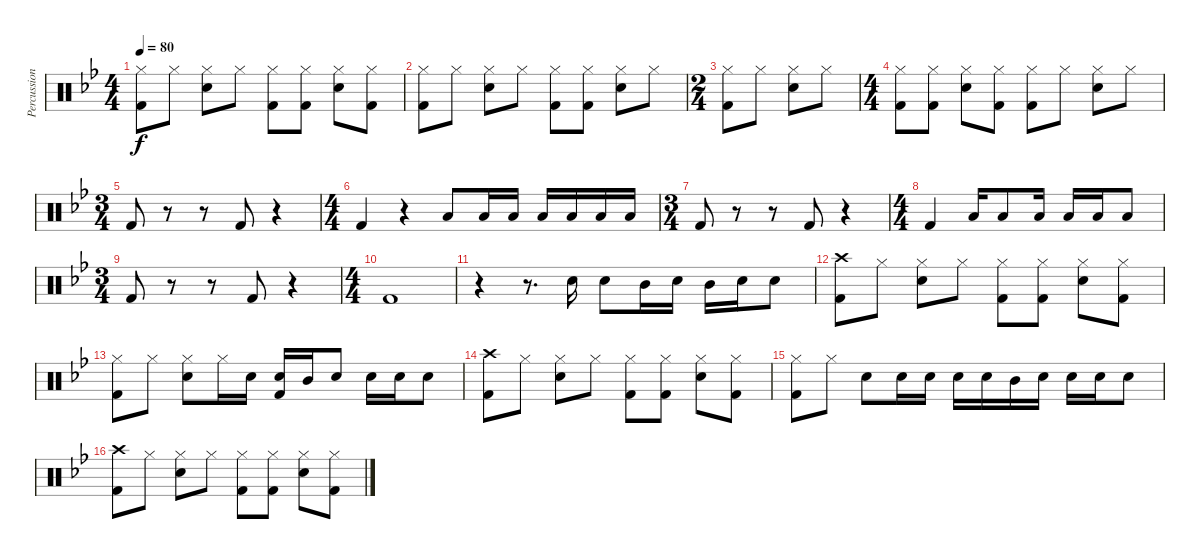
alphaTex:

\track ("Percussion" "Percussion") {instrument percussion}
\staff {score}
\articulation defaults
\ts (4 4)
\tempo 80
\clef neutral
\ks bb
("Hi-Hat (closed)" "Kick (hit) 2").8{dy f} "Hi-Hat (closed)".8 ("Hi-Hat (closed)" "Snare (hit) 2").8 "Hi-Hat (closed)".8 ("Hi-Hat (closed)" "Kick (hit) 2").8 ("Hi-Hat (closed)" "Kick (hit) 2").8 ("Hi-Hat (closed)" "Snare (hit) 2").8 ("Hi-Hat (closed)" "Kick (hit) 2").8 |
("Hi-Hat (closed)" "Kick (hit) 2").8 "Hi-Hat (closed)".8 ("Hi-Hat (closed)" "Snare (hit) 2").8 "Hi-Hat (closed)".8 ("Hi-Hat (closed)" "Kick (hit) 2").8 ("Hi-Hat (closed)" "Kick (hit) 2").8 ("Hi-Hat (closed)" "Snare (hit) 2").8 "Hi-Hat (closed)".8 |
\ts (2 4)
("Hi-Hat (closed)" "Kick (hit) 2").8 "Hi-Hat (closed)".8 ("Hi-Hat (closed)" "Snare (hit) 2").8 "Hi-Hat (closed)".8 |
\ts (4 4)
("Hi-Hat (closed)" "Kick (hit) 2").8 ("Hi-Hat (closed)" "Kick (hit) 2").8 ("Hi-Hat (closed)" "Snare (hit) 2").8 ("Hi-Hat (closed)" "Kick (hit) 2").8 ("Hi-Hat (closed)" "Kick (hit) 2").8 "Hi-Hat (closed)".8 ("Hi-Hat (closed)" "Snare (hit) 2").8 "Hi-Hat (closed)".8 |
\ts (3 4)
"Kick (hit) 2".8 r.8 r.8 "Kick (hit) 2".8 r.4 |
\ts (4 4)
"Kick (hit) 2".4 r.4 "Low Floor Tom (hit)".8 "Low Floor Tom (hit)".16 "Low Floor Tom (hit)".16 "Low Floor Tom (hit)".16 "Low Floor Tom (hit)".16 "Low Floor Tom (hit)".16 "Low Floor Tom (hit)".16 |
\ts (3 4)
"Kick (hit) 2".8 r.8 r.8 "Kick (hit) 2".8 r.4 |
\ts (4 4)
"Kick (hit) 2".4 "Low Floor Tom (hit)".16 "Low Floor Tom (hit)".8 "Low Floor Tom (hit)".16 "Low Floor Tom (hit)".16 "Low Floor Tom (hit)".16 "Low Floor Tom (hit)".8 |
\ts (3 4)
"Kick (hit) 2".8 r.8 r.8 "Kick (hit) 2".8 r.4 |
\ts (4 4)
"Kick (hit) 2".1 |
r.4 r.8{d} "Snare (hit) 2".16 "Snare (hit) 2".8 "Mid Tom (hit)".16 "Snare (hit) 2".16 "Mid Tom (hit)".16 "Snare (hit) 2".16 "Snare (hit) 2".8 |
("Crash high (hit)" "Kick (hit) 2").8 "Hi-Hat (closed)".8 ("Hi-Hat (closed)" "Snare (hit) 2").8 "Hi-Hat (closed)".8 ("Hi-Hat (closed)" "Kick (hit) 2").8 ("Hi-Hat (closed)" "Kick (hit) 2").8 ("Hi-Hat (closed)" "Snare (hit) 2").8 ("Hi-Hat (closed)" "Kick (hit) 2").8 |
("Hi-Hat (closed)" "Kick (hit) 2").8 "Hi-Hat (closed)".8 ("Hi-Hat (closed)" "Snare (hit) 2").8 "Hi-Hat (closed)".16 "Snare (hit) 2".16 ("Snare (hit) 2" "Kick (hit) 2").16 "Mid Tom (hit)".16 "Snare (hit) 2".8 "Snare (hit) 2".16 "Snare (hit) 2".16 "Snare (hit) 2".8 |
("Crash high (hit)" "Kick (hit) 2").8 "Hi-Hat (closed)".8 ("Hi-Hat (closed)" "Snare (hit) 2").8 "Hi-Hat (closed)".8 ("Hi-Hat (closed)" "Kick (hit) 2").8 ("Hi-Hat (closed)" "Kick (hit) 2").8 ("Hi-Hat (closed)" "Snare (hit) 2").8 ("Hi-Hat (closed)" "Kick (hit) 2").8 |
("Hi-Hat (closed)" "Kick (hit) 2").8 "Hi-Hat (closed)".8 "Snare (hit) 2".8 "Snare (hit) 2".16 "Snare (hit) 2".16 "Snare (hit) 2".16 "Snare (hit) 2".16 "Mid Tom (hit)".16 "Snare (hit) 2".16 "Snare (hit) 2".16 "Snare (hit) 2".16 "Snare (hit) 2".8 |
("Crash high (hit)" "Kick (hit) 2").8 "Hi-Hat (closed)".8 ("Hi-Hat (closed)" "Snare (hit) 2").8 "Hi-Hat (closed)".8 ("Hi-Hat (closed)" "Kick (hit) 2").8 ("Hi-Hat (closed)" "Kick (hit) 2").8 ("Hi-Hat (closed)" "Snare (hit) 2").8 ("Hi-Hat (closed)" "Kick (hit) 2").8
